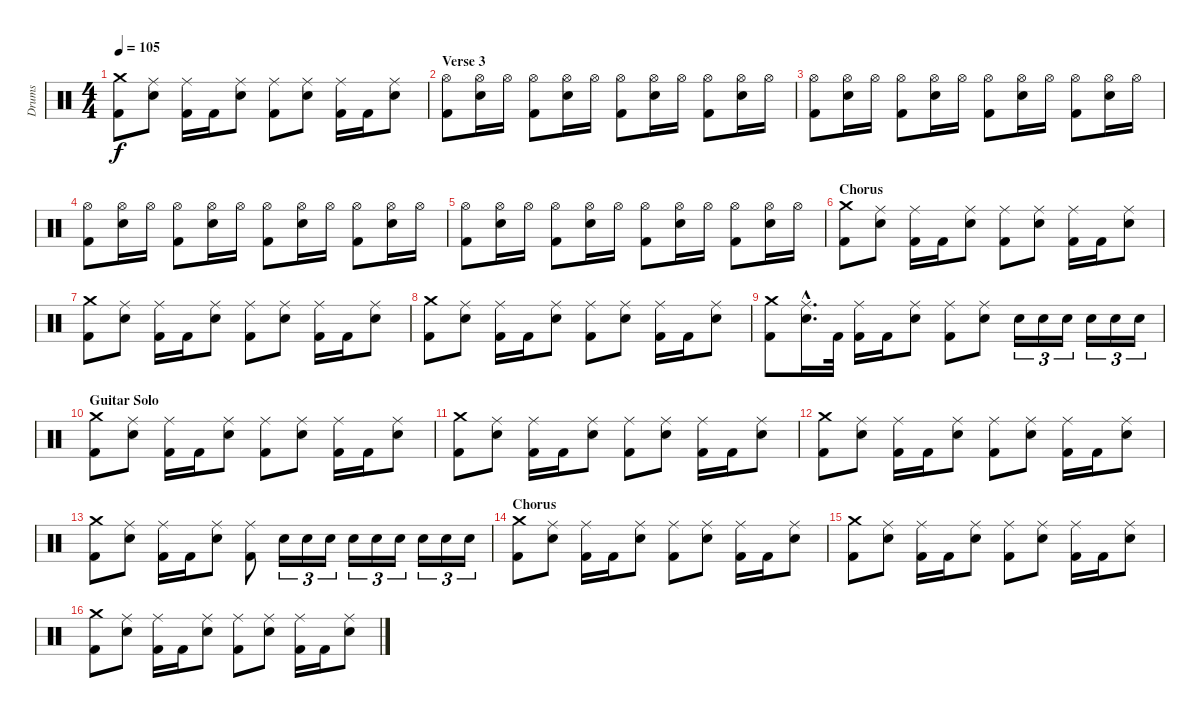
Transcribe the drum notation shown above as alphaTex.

\track ("Drums" "Drums") {instrument percussion}
\staff {score}
\articulation defaults
\ts (4 4)
\tempo 105
\clef neutral
\ks c
("Crash medium (hit)" "Kick (hit) 2").8{dy f} ("Ride (middle)" "Electric Snare (hit)").8 ("Ride (middle)" "Kick (hit) 2").16 "Kick (hit) 2".16 ("Ride (middle)" "Electric Snare (hit)").8 ("Ride (middle)" "Kick (hit) 2").8 ("Ride (middle)" "Electric Snare (hit)").8 ("Ride (middle)" "Kick (hit) 2").16 "Kick (hit) 2".16 ("Ride (middle)" "Electric Snare (hit)").8 |
\section ("" "Verse 3")
("Hi-Hat (open)" "Kick (hit) 2").8 ("Hi-Hat (open)" "Electric Snare (hit)").16 "Hi-Hat (open)".16 ("Hi-Hat (open)" "Kick (hit) 2").8 ("Hi-Hat (open)" "Electric Snare (hit)").16 "Hi-Hat (open)".16 ("Hi-Hat (open)" "Kick (hit) 2").8 ("Hi-Hat (open)" "Electric Snare (hit)").16 "Hi-Hat (open)".16 ("Hi-Hat (open)" "Kick (hit) 2").8 ("Hi-Hat (open)" "Electric Snare (hit)").16 "Hi-Hat (open)".16 |
("Hi-Hat (open)" "Kick (hit) 2").8 ("Hi-Hat (open)" "Electric Snare (hit)").16 "Hi-Hat (open)".16 ("Hi-Hat (open)" "Kick (hit) 2").8 ("Hi-Hat (open)" "Electric Snare (hit)").16 "Hi-Hat (open)".16 ("Hi-Hat (open)" "Kick (hit) 2").8 ("Hi-Hat (open)" "Electric Snare (hit)").16 "Hi-Hat (open)".16 ("Hi-Hat (open)" "Kick (hit) 2").8 ("Hi-Hat (open)" "Electric Snare (hit)").16 "Hi-Hat (open)".16 |
("Hi-Hat (open)" "Kick (hit) 2").8 ("Hi-Hat (open)" "Electric Snare (hit)").16 "Hi-Hat (open)".16 ("Hi-Hat (open)" "Kick (hit) 2").8 ("Hi-Hat (open)" "Electric Snare (hit)").16 "Hi-Hat (open)".16 ("Hi-Hat (open)" "Kick (hit) 2").8 ("Hi-Hat (open)" "Electric Snare (hit)").16 "Hi-Hat (open)".16 ("Hi-Hat (open)" "Kick (hit) 2").8 ("Hi-Hat (open)" "Electric Snare (hit)").16 "Hi-Hat (open)".16 |
("Hi-Hat (open)" "Kick (hit) 2").8 ("Hi-Hat (open)" "Electric Snare (hit)").16 "Hi-Hat (open)".16 ("Hi-Hat (open)" "Kick (hit) 2").8 ("Hi-Hat (open)" "Electric Snare (hit)").16 "Hi-Hat (open)".16 ("Hi-Hat (open)" "Kick (hit) 2").8 ("Hi-Hat (open)" "Electric Snare (hit)").16 "Hi-Hat (open)".16 ("Hi-Hat (open)" "Kick (hit) 2").8 ("Hi-Hat (open)" "Electric Snare (hit)").16 "Hi-Hat (open)".16 |
\section ("" "Chorus")
("Crash medium (hit)" "Kick (hit) 2").8 ("Ride (middle)" "Electric Snare (hit)").8 ("Ride (middle)" "Kick (hit) 2").16 "Kick (hit) 2".16 ("Ride (middle)" "Electric Snare (hit)").8 ("Ride (middle)" "Kick (hit) 2").8 ("Ride (middle)" "Electric Snare (hit)").8 ("Ride (middle)" "Kick (hit) 2").16 "Kick (hit) 2".16 ("Ride (middle)" "Electric Snare (hit)").8 |
("Crash medium (hit)" "Kick (hit) 2").8 ("Ride (middle)" "Electric Snare (hit)").8 ("Ride (middle)" "Kick (hit) 2").16 "Kick (hit) 2".16 ("Ride (middle)" "Electric Snare (hit)").8 ("Ride (middle)" "Kick (hit) 2").8 ("Ride (middle)" "Electric Snare (hit)").8 ("Ride (middle)" "Kick (hit) 2").16 "Kick (hit) 2".16 ("Ride (middle)" "Electric Snare (hit)").8 |
("Crash medium (hit)" "Kick (hit) 2").8 ("Ride (middle)" "Electric Snare (hit)").8 ("Ride (middle)" "Kick (hit) 2").16 "Kick (hit) 2".16 ("Ride (middle)" "Electric Snare (hit)").8 ("Ride (middle)" "Kick (hit) 2").8 ("Ride (middle)" "Electric Snare (hit)").8 ("Ride (middle)" "Kick (hit) 2").16 "Kick (hit) 2".16 ("Ride (middle)" "Electric Snare (hit)").8 |
("Crash medium (hit)" "Kick (hit) 2").8 ("Ride (middle)"{hac} "Electric Snare (hit)"{hac}).16{d} "Kick (hit) 2".32 ("Ride (middle)" "Kick (hit) 2").16 "Kick (hit) 2".16 ("Ride (middle)" "Electric Snare (hit)").8 ("Ride (middle)" "Kick (hit) 2").8 ("Ride (middle)" "Electric Snare (hit)").8 "Electric Snare (hit)".16{tu (3 2)} "Electric Snare (hit)".16{tu (3 2)} "Electric Snare (hit)".16{tu (3 2)} "Electric Snare (hit)".16{tu (3 2)} "Electric Snare (hit)".16{tu (3 2)} "Electric Snare (hit)".16{tu (3 2)} |
\section ("" "Guitar Solo")
("Crash medium (hit)" "Kick (hit) 2").8 ("Ride (middle)" "Electric Snare (hit)").8 ("Ride (middle)" "Kick (hit) 2").16 "Kick (hit) 2".16 ("Ride (middle)" "Electric Snare (hit)").8 ("Ride (middle)" "Kick (hit) 2").8 ("Ride (middle)" "Electric Snare (hit)").8 ("Ride (middle)" "Kick (hit) 2").16 "Kick (hit) 2".16 ("Ride (middle)" "Electric Snare (hit)").8 |
("Crash medium (hit)" "Kick (hit) 2").8 ("Ride (middle)" "Electric Snare (hit)").8 ("Ride (middle)" "Kick (hit) 2").16 "Kick (hit) 2".16 ("Ride (middle)" "Electric Snare (hit)").8 ("Ride (middle)" "Kick (hit) 2").8 ("Ride (middle)" "Electric Snare (hit)").8 ("Ride (middle)" "Kick (hit) 2").16 "Kick (hit) 2".16 ("Ride (middle)" "Electric Snare (hit)").8 |
("Crash medium (hit)" "Kick (hit) 2").8 ("Ride (middle)" "Electric Snare (hit)").8 ("Ride (middle)" "Kick (hit) 2").16 "Kick (hit) 2".16 ("Ride (middle)" "Electric Snare (hit)").8 ("Ride (middle)" "Kick (hit) 2").8 ("Ride (middle)" "Electric Snare (hit)").8 ("Ride (middle)" "Kick (hit) 2").16 "Kick (hit) 2".16 ("Ride (middle)" "Electric Snare (hit)").8 |
("Crash medium (hit)" "Kick (hit) 2").8 ("Ride (middle)" "Electric Snare (hit)").8 ("Ride (middle)" "Kick (hit) 2").16 "Kick (hit) 2".16 ("Ride (middle)" "Electric Snare (hit)").8 ("Ride (middle)" "Kick (hit) 2").8 "Electric Snare (hit)".16{tu (3 2)} "Electric Snare (hit)".16{tu (3 2)} "Electric Snare (hit)".16{tu (3 2)} "Electric Snare (hit)".16{tu (3 2)} "Electric Snare (hit)".16{tu (3 2)} "Electric Snare (hit)".16{tu (3 2)} "Electric Snare (hit)".16{tu (3 2)} "Electric Snare (hit)".16{tu (3 2)} "Electric Snare (hit)".16{tu (3 2)} |
\section ("" "Chorus")
("Crash medium (hit)" "Kick (hit) 2").8 ("Ride (middle)" "Electric Snare (hit)").8 ("Ride (middle)" "Kick (hit) 2").16 "Kick (hit) 2".16 ("Ride (middle)" "Electric Snare (hit)").8 ("Ride (middle)" "Kick (hit) 2").8 ("Ride (middle)" "Electric Snare (hit)").8 ("Ride (middle)" "Kick (hit) 2").16 "Kick (hit) 2".16 ("Ride (middle)" "Electric Snare (hit)").8 |
("Crash medium (hit)" "Kick (hit) 2").8 ("Ride (middle)" "Electric Snare (hit)").8 ("Ride (middle)" "Kick (hit) 2").16 "Kick (hit) 2".16 ("Ride (middle)" "Electric Snare (hit)").8 ("Ride (middle)" "Kick (hit) 2").8 ("Ride (middle)" "Electric Snare (hit)").8 ("Ride (middle)" "Kick (hit) 2").16 "Kick (hit) 2".16 ("Ride (middle)" "Electric Snare (hit)").8 |
("Crash medium (hit)" "Kick (hit) 2").8 ("Ride (middle)" "Electric Snare (hit)").8 ("Ride (middle)" "Kick (hit) 2").16 "Kick (hit) 2".16 ("Ride (middle)" "Electric Snare (hit)").8 ("Ride (middle)" "Kick (hit) 2").8 ("Ride (middle)" "Electric Snare (hit)").8 ("Ride (middle)" "Kick (hit) 2").16 "Kick (hit) 2".16 ("Ride (middle)" "Electric Snare (hit)").8
